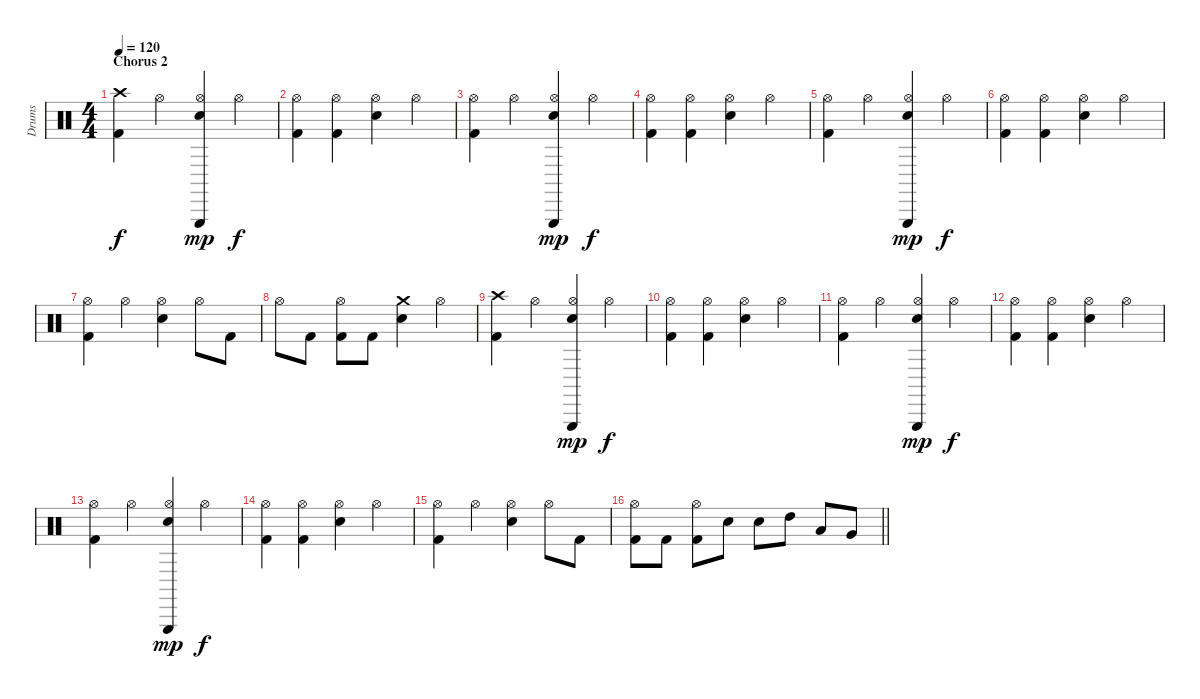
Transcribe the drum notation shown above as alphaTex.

\track ("Drums" "Drums") {instrument percussion}
\staff {score}
\articulation defaults
\ts (4 4)
\section ("" "Chorus 2")
\tempo 120
\clef neutral
\ks c
("Crash high (hit)" "Kick (hit) 2").4{dy f} "Hi-Hat (open)".4 ("Hi-Hat (open)" "Snare (hit) 2" "Triangle (hit)").4{dy mp} "Hi-Hat (open)".4{dy f} |
("Hi-Hat (open)" "Kick (hit) 2").4 ("Hi-Hat (open)" "Kick (hit) 2").4 ("Hi-Hat (open)" "Snare (hit) 2").4 "Hi-Hat (open)".4 |
("Hi-Hat (open)" "Kick (hit) 2").4 "Hi-Hat (open)".4 ("Hi-Hat (open)" "Snare (hit) 2" "Triangle (hit)").4{dy mp} "Hi-Hat (open)".4{dy f} |
("Hi-Hat (open)" "Kick (hit) 2").4 ("Hi-Hat (open)" "Kick (hit) 2").4 ("Hi-Hat (open)" "Snare (hit) 2").4 "Hi-Hat (open)".4 |
("Hi-Hat (open)" "Kick (hit) 2").4 "Hi-Hat (open)".4 ("Hi-Hat (open)" "Snare (hit) 2" "Triangle (hit)").4{dy mp} "Hi-Hat (open)".4{dy f} |
("Hi-Hat (open)" "Kick (hit) 2").4 ("Hi-Hat (open)" "Kick (hit) 2").4 ("Hi-Hat (open)" "Snare (hit) 2").4 "Hi-Hat (open)".4 |
("Hi-Hat (open)" "Kick (hit) 2").4 "Hi-Hat (open)".4 ("Hi-Hat (open)" "Snare (hit) 2").4 "Hi-Hat (open)".8 "Kick (hit) 2".8 |
"Hi-Hat (open)".8 "Kick (hit) 2".8 ("Hi-Hat (open)" "Kick (hit) 2").8 "Kick (hit) 2".8 ("Crash medium (hit)" "Snare (hit) 2").4 "Hi-Hat (open)".4 |
("Crash high (hit)" "Kick (hit) 2").4 "Hi-Hat (open)".4 ("Hi-Hat (open)" "Snare (hit) 2" "Triangle (hit)").4{dy mp} "Hi-Hat (open)".4{dy f} |
("Hi-Hat (open)" "Kick (hit) 2").4 ("Hi-Hat (open)" "Kick (hit) 2").4 ("Hi-Hat (open)" "Snare (hit) 2").4 "Hi-Hat (open)".4 |
("Hi-Hat (open)" "Kick (hit) 2").4 "Hi-Hat (open)".4 ("Hi-Hat (open)" "Snare (hit) 2" "Triangle (hit)").4{dy mp} "Hi-Hat (open)".4{dy f} |
("Hi-Hat (open)" "Kick (hit) 2").4 ("Hi-Hat (open)" "Kick (hit) 2").4 ("Hi-Hat (open)" "Snare (hit) 2").4 "Hi-Hat (open)".4 |
("Hi-Hat (open)" "Kick (hit) 2").4 "Hi-Hat (open)".4 ("Hi-Hat (open)" "Snare (hit) 2" "Triangle (hit)").4{dy mp} "Hi-Hat (open)".4{dy f} |
("Hi-Hat (open)" "Kick (hit) 2").4 ("Hi-Hat (open)" "Kick (hit) 2").4 ("Hi-Hat (open)" "Snare (hit) 2").4 "Hi-Hat (open)".4 |
("Hi-Hat (open)" "Kick (hit) 2").4 "Hi-Hat (open)".4 ("Hi-Hat (open)" "Snare (hit) 2").4 "Hi-Hat (open)".8 "Kick (hit) 2".8 |
\barLineRight lightlight
("Hi-Hat (open)" "Kick (hit) 2").8 "Kick (hit) 2".8 ("Hi-Hat (open)" "Kick (hit) 2").8 "Snare (hit) 2".8 "Snare (hit) 2".8 "High Tom (hit)".8 "Low Tom (hit)".8 "Very Low Tom (hit)".8
